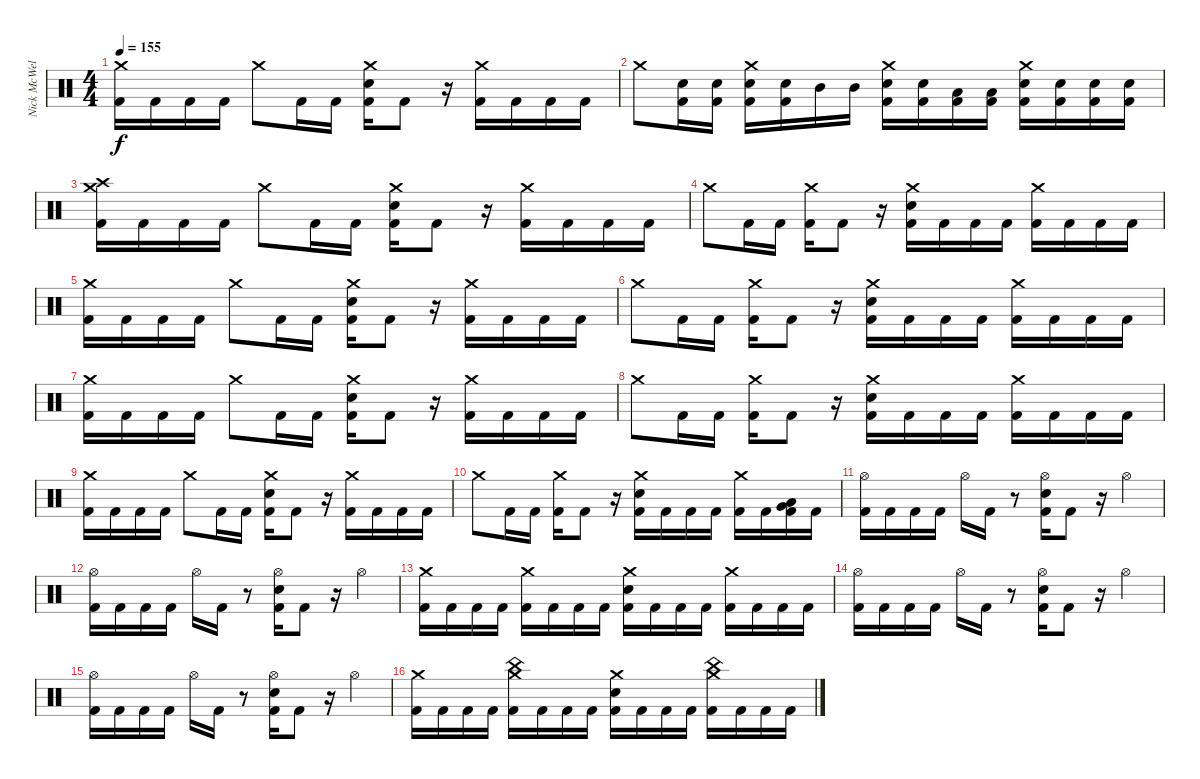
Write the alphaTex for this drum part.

\track ("Nick McWells" "Nick McWel") {instrument percussion}
\staff {score}
\articulation defaults
\ts (4 4)
\tempo 155
\clef neutral
\ks c
("Crash medium (hit)" "Kick (hit) 2").16{dy f} "Kick (hit) 2".16 "Kick (hit) 2".16 "Kick (hit) 2".16 "Crash medium (hit)".8 "Kick (hit) 2".16 "Kick (hit) 2".16 ("Crash medium (hit)" "Electric Snare (hit)" "Kick (hit) 2").16 "Kick (hit) 2".8 r.16 ("Crash medium (hit)" "Kick (hit) 2").16 "Kick (hit) 2".16 "Kick (hit) 2".16 "Kick (hit) 2".16 |
"Crash medium (hit)".8 ("Electric Snare (hit)" "Kick (hit) 2").16 ("Electric Snare (hit)" "Kick (hit) 2").16 ("Crash medium (hit)" "Electric Snare (hit)" "Kick (hit) 2").16 ("Electric Snare (hit)" "Kick (hit) 2").16 "Mid Tom (hit)".16 "Mid Tom (hit)".16 ("Crash medium (hit)" "Electric Snare (hit)" "Kick (hit) 2").16 ("Electric Snare (hit)" "Kick (hit) 2").16 ("Low Tom (hit)" "Kick (hit) 2").16 ("Low Tom (hit)" "Kick (hit) 2").16 ("Crash medium (hit)" "Electric Snare (hit)" "Kick (hit) 2").16 ("Electric Snare (hit)" "Kick (hit) 2").16 ("Electric Snare (hit)" "Kick (hit) 2").16 ("Electric Snare (hit)" "Kick (hit) 2").16 |
("Crash high (hit)" "Crash medium (hit)" "Kick (hit) 2").16 "Kick (hit) 2".16 "Kick (hit) 2".16 "Kick (hit) 2".16 "Crash medium (hit)".8 "Kick (hit) 2".16 "Kick (hit) 2".16 ("Crash medium (hit)" "Electric Snare (hit)" "Kick (hit) 2").16 "Kick (hit) 2".8 r.16 ("Crash medium (hit)" "Kick (hit) 2").16 "Kick (hit) 2".16 "Kick (hit) 2".16 "Kick (hit) 2".16 |
"Crash medium (hit)".8 "Kick (hit) 2".16 "Kick (hit) 2".16 ("Crash medium (hit)" "Kick (hit) 2").16 "Kick (hit) 2".8 r.16 ("Crash medium (hit)" "Electric Snare (hit)" "Kick (hit) 2").16 "Kick (hit) 2".16 "Kick (hit) 2".16 "Kick (hit) 2".16 ("Crash medium (hit)" "Kick (hit) 2").16 "Kick (hit) 2".16 "Kick (hit) 2".16 "Kick (hit) 2".16 |
("Crash medium (hit)" "Kick (hit) 2").16 "Kick (hit) 2".16 "Kick (hit) 2".16 "Kick (hit) 2".16 "Crash medium (hit)".8 "Kick (hit) 2".16 "Kick (hit) 2".16 ("Crash medium (hit)" "Electric Snare (hit)" "Kick (hit) 2").16 "Kick (hit) 2".8 r.16 ("Crash medium (hit)" "Kick (hit) 2").16 "Kick (hit) 2".16 "Kick (hit) 2".16 "Kick (hit) 2".16 |
"Crash medium (hit)".8 "Kick (hit) 2".16 "Kick (hit) 2".16 ("Crash medium (hit)" "Kick (hit) 2").16 "Kick (hit) 2".8 r.16 ("Crash medium (hit)" "Electric Snare (hit)" "Kick (hit) 2").16 "Kick (hit) 2".16 "Kick (hit) 2".16 "Kick (hit) 2".16 ("Crash medium (hit)" "Kick (hit) 2").16 "Kick (hit) 2".16 "Kick (hit) 2".16 "Kick (hit) 2".16 |
("Crash medium (hit)" "Kick (hit) 2").16 "Kick (hit) 2".16 "Kick (hit) 2".16 "Kick (hit) 2".16 "Crash medium (hit)".8 "Kick (hit) 2".16 "Kick (hit) 2".16 ("Crash medium (hit)" "Electric Snare (hit)" "Kick (hit) 2").16 "Kick (hit) 2".8 r.16 ("Crash medium (hit)" "Kick (hit) 2").16 "Kick (hit) 2".16 "Kick (hit) 2".16 "Kick (hit) 2".16 |
"Crash medium (hit)".8 "Kick (hit) 2".16 "Kick (hit) 2".16 ("Crash medium (hit)" "Kick (hit) 2").16 "Kick (hit) 2".8 r.16 ("Crash medium (hit)" "Electric Snare (hit)" "Kick (hit) 2").16 "Kick (hit) 2".16 "Kick (hit) 2".16 "Kick (hit) 2".16 ("Crash medium (hit)" "Kick (hit) 2").16 "Kick (hit) 2".16 "Kick (hit) 2".16 "Kick (hit) 2".16 |
("Crash medium (hit)" "Kick (hit) 2").16 "Kick (hit) 2".16 "Kick (hit) 2".16 "Kick (hit) 2".16 "Crash medium (hit)".8 "Kick (hit) 2".16 "Kick (hit) 2".16 ("Crash medium (hit)" "Electric Snare (hit)" "Kick (hit) 2").16 "Kick (hit) 2".8 r.16 ("Crash medium (hit)" "Kick (hit) 2").16 "Kick (hit) 2".16 "Kick (hit) 2".16 "Kick (hit) 2".16 |
"Crash medium (hit)".8 "Kick (hit) 2".16 "Kick (hit) 2".16 ("Crash medium (hit)" "Kick (hit) 2").16 "Kick (hit) 2".8 r.16 ("Crash medium (hit)" "Electric Snare (hit)" "Kick (hit) 2").16 "Kick (hit) 2".16 "Kick (hit) 2".16 "Kick (hit) 2".16 ("Crash medium (hit)" "Kick (hit) 2").16 "Kick (hit) 2".16 ("Low Tom (hit)" "Very Low Tom (hit)" "Kick (hit) 2").16 "Kick (hit) 2".16 |
("Hi-Hat (open)" "Kick (hit) 2").16 "Kick (hit) 2".16 "Kick (hit) 2".16 "Kick (hit) 2".16 "Hi-Hat (open)".16 "Kick (hit) 2".16 r.8 ("Hi-Hat (open)" "Electric Snare (hit)" "Kick (hit) 2").16 "Kick (hit) 2".8 r.16 "Hi-Hat (open)".4 |
("Hi-Hat (open)" "Kick (hit) 2").16 "Kick (hit) 2".16 "Kick (hit) 2".16 "Kick (hit) 2".16 "Hi-Hat (open)".16 "Kick (hit) 2".16 r.8 ("Hi-Hat (open)" "Electric Snare (hit)" "Kick (hit) 2").16 "Kick (hit) 2".8 r.16 "Hi-Hat (open)".4 |
("Crash medium (hit)" "Kick (hit) 2").16 "Kick (hit) 2".16 "Kick (hit) 2".16 "Kick (hit) 2".16 ("Crash medium (hit)" "Kick (hit) 2").16 "Kick (hit) 2".16 "Kick (hit) 2".16 "Kick (hit) 2".16 ("Crash medium (hit)" "Electric Snare (hit)" "Kick (hit) 2").16 "Kick (hit) 2".16 "Kick (hit) 2".16 "Kick (hit) 2".16 ("Crash medium (hit)" "Kick (hit) 2").16 "Kick (hit) 2".16 "Kick (hit) 2".16 "Kick (hit) 2".16 |
("Hi-Hat (open)" "Kick (hit) 2").16 "Kick (hit) 2".16 "Kick (hit) 2".16 "Kick (hit) 2".16 "Hi-Hat (open)".16 "Kick (hit) 2".16 r.8 ("Hi-Hat (open)" "Electric Snare (hit)" "Kick (hit) 2").16 "Kick (hit) 2".8 r.16 "Hi-Hat (open)".4 |
("Hi-Hat (open)" "Kick (hit) 2").16 "Kick (hit) 2".16 "Kick (hit) 2".16 "Kick (hit) 2".16 "Hi-Hat (open)".16 "Kick (hit) 2".16 r.8 ("Hi-Hat (open)" "Electric Snare (hit)" "Kick (hit) 2").16 "Kick (hit) 2".8 r.16 "Hi-Hat (open)".4 |
("Crash medium (hit)" "Kick (hit) 2").16 "Kick (hit) 2".16 "Kick (hit) 2".16 "Kick (hit) 2".16 ("China (hit)" "Crash medium (hit)" "Kick (hit) 2").16 "Kick (hit) 2".16 "Kick (hit) 2".16 "Kick (hit) 2".16 ("Crash medium (hit)" "Electric Snare (hit)" "Kick (hit) 2").16 "Kick (hit) 2".16 "Kick (hit) 2".16 "Kick (hit) 2".16 ("China (hit)" "Crash medium (hit)" "Kick (hit) 2").16 "Kick (hit) 2".16 "Kick (hit) 2".16 "Kick (hit) 2".16
